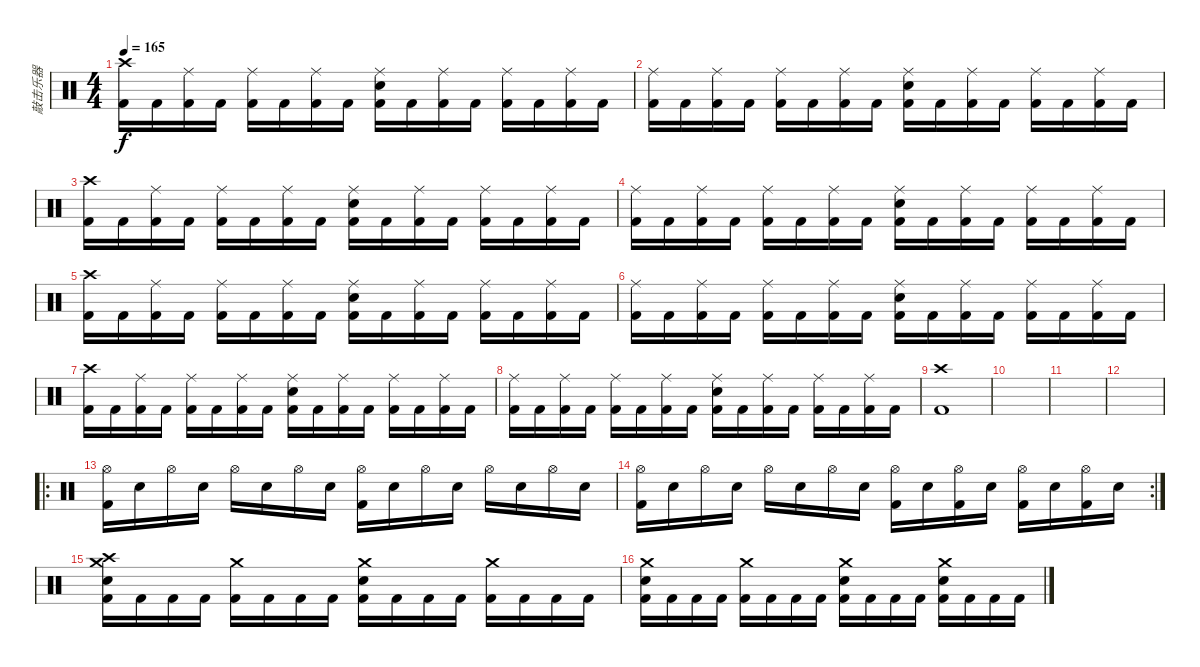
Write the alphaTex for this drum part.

\track ("敲击乐器" "敲击乐器") {instrument percussion}
\staff {score}
\articulation defaults
\ts (4 4)
\tempo 165
\clef neutral
\ks c
("Crash high (hit)" "Kick (hit) 2").16{dy f} "Kick (hit) 2".16 ("Ride (middle)" "Kick (hit) 2").16 "Kick (hit) 2".16 ("Ride (middle)" "Kick (hit) 2").16 "Kick (hit) 2".16 ("Ride (middle)" "Kick (hit) 2").16 "Kick (hit) 2".16 ("Ride (middle)" "Kick (hit) 2" "Snare (hit) 2").16 "Kick (hit) 2".16 ("Ride (middle)" "Kick (hit) 2").16 "Kick (hit) 2".16 ("Ride (middle)" "Kick (hit) 2").16 "Kick (hit) 2".16 ("Ride (middle)" "Kick (hit) 2").16 "Kick (hit) 2".16 |
("Ride (middle)" "Kick (hit) 2").16 "Kick (hit) 2".16 ("Ride (middle)" "Kick (hit) 2").16 "Kick (hit) 2".16 ("Ride (middle)" "Kick (hit) 2").16 "Kick (hit) 2".16 ("Ride (middle)" "Kick (hit) 2").16 "Kick (hit) 2".16 ("Ride (middle)" "Kick (hit) 2" "Snare (hit) 2").16 "Kick (hit) 2".16 ("Ride (middle)" "Kick (hit) 2").16 "Kick (hit) 2".16 ("Ride (middle)" "Kick (hit) 2").16 "Kick (hit) 2".16 ("Ride (middle)" "Kick (hit) 2").16 "Kick (hit) 2".16 |
("Crash high (hit)" "Kick (hit) 2").16 "Kick (hit) 2".16 ("Ride (middle)" "Kick (hit) 2").16 "Kick (hit) 2".16 ("Ride (middle)" "Kick (hit) 2").16 "Kick (hit) 2".16 ("Ride (middle)" "Kick (hit) 2").16 "Kick (hit) 2".16 ("Ride (middle)" "Kick (hit) 2" "Snare (hit) 2").16 "Kick (hit) 2".16 ("Ride (middle)" "Kick (hit) 2").16 "Kick (hit) 2".16 ("Ride (middle)" "Kick (hit) 2").16 "Kick (hit) 2".16 ("Ride (middle)" "Kick (hit) 2").16 "Kick (hit) 2".16 |
("Ride (middle)" "Kick (hit) 2").16 "Kick (hit) 2".16 ("Ride (middle)" "Kick (hit) 2").16 "Kick (hit) 2".16 ("Ride (middle)" "Kick (hit) 2").16 "Kick (hit) 2".16 ("Ride (middle)" "Kick (hit) 2").16 "Kick (hit) 2".16 ("Ride (middle)" "Kick (hit) 2" "Snare (hit) 2").16 "Kick (hit) 2".16 ("Ride (middle)" "Kick (hit) 2").16 "Kick (hit) 2".16 ("Ride (middle)" "Kick (hit) 2").16 "Kick (hit) 2".16 ("Ride (middle)" "Kick (hit) 2").16 "Kick (hit) 2".16 |
("Crash high (hit)" "Kick (hit) 2").16 "Kick (hit) 2".16 ("Ride (middle)" "Kick (hit) 2").16 "Kick (hit) 2".16 ("Ride (middle)" "Kick (hit) 2").16 "Kick (hit) 2".16 ("Ride (middle)" "Kick (hit) 2").16 "Kick (hit) 2".16 ("Ride (middle)" "Kick (hit) 2" "Snare (hit) 2").16 "Kick (hit) 2".16 ("Ride (middle)" "Kick (hit) 2").16 "Kick (hit) 2".16 ("Ride (middle)" "Kick (hit) 2").16 "Kick (hit) 2".16 ("Ride (middle)" "Kick (hit) 2").16 "Kick (hit) 2".16 |
("Ride (middle)" "Kick (hit) 2").16 "Kick (hit) 2".16 ("Ride (middle)" "Kick (hit) 2").16 "Kick (hit) 2".16 ("Ride (middle)" "Kick (hit) 2").16 "Kick (hit) 2".16 ("Ride (middle)" "Kick (hit) 2").16 "Kick (hit) 2".16 ("Ride (middle)" "Kick (hit) 2" "Snare (hit) 2").16 "Kick (hit) 2".16 ("Ride (middle)" "Kick (hit) 2").16 "Kick (hit) 2".16 ("Ride (middle)" "Kick (hit) 2").16 "Kick (hit) 2".16 ("Ride (middle)" "Kick (hit) 2").16 "Kick (hit) 2".16 |
("Crash high (hit)" "Kick (hit) 2").16 "Kick (hit) 2".16 ("Ride (middle)" "Kick (hit) 2").16 "Kick (hit) 2".16 ("Ride (middle)" "Kick (hit) 2").16 "Kick (hit) 2".16 ("Ride (middle)" "Kick (hit) 2").16 "Kick (hit) 2".16 ("Ride (middle)" "Kick (hit) 2" "Snare (hit) 2").16 "Kick (hit) 2".16 ("Ride (middle)" "Kick (hit) 2").16 "Kick (hit) 2".16 ("Ride (middle)" "Kick (hit) 2").16 "Kick (hit) 2".16 ("Ride (middle)" "Kick (hit) 2").16 "Kick (hit) 2".16 |
("Ride (middle)" "Kick (hit) 2").16 "Kick (hit) 2".16 ("Ride (middle)" "Kick (hit) 2").16 "Kick (hit) 2".16 ("Ride (middle)" "Kick (hit) 2").16 "Kick (hit) 2".16 ("Ride (middle)" "Kick (hit) 2").16 "Kick (hit) 2".16 ("Ride (middle)" "Kick (hit) 2" "Snare (hit) 2").16 "Kick (hit) 2".16 ("Ride (middle)" "Kick (hit) 2").16 "Kick (hit) 2".16 ("Ride (middle)" "Kick (hit) 2").16 "Kick (hit) 2".16 ("Ride (middle)" "Kick (hit) 2").16 "Kick (hit) 2".16 |
("Kick (hit) 2" "Crash high (hit)").1 |
|
|
|
\ro
("Kick (hit) 2" "Hi-Hat (open)").16 "Snare (hit) 2".16 "Hi-Hat (open)".16 "Snare (hit) 2".16 "Hi-Hat (open)".16 "Snare (hit) 2".16 "Hi-Hat (open)".16 "Snare (hit) 2".16 ("Hi-Hat (open)" "Kick (hit) 2").16 "Snare (hit) 2".16 "Hi-Hat (open)".16 "Snare (hit) 2".16 "Hi-Hat (open)".16 "Snare (hit) 2".16 "Hi-Hat (open)".16 "Snare (hit) 2".16 |
\rc 2
("Kick (hit) 2" "Hi-Hat (open)").16 "Snare (hit) 2".16 "Hi-Hat (open)".16 "Snare (hit) 2".16 "Hi-Hat (open)".16 "Snare (hit) 2".16 "Hi-Hat (open)".16 "Snare (hit) 2".16 ("Hi-Hat (open)" "Kick (hit) 2").16 "Snare (hit) 2".16 ("Hi-Hat (open)" "Kick (hit) 2").16 "Snare (hit) 2".16 ("Hi-Hat (open)" "Kick (hit) 2").16 "Snare (hit) 2".16 ("Hi-Hat (open)" "Kick (hit) 2").16 "Snare (hit) 2".16 |
("Snare (hit) 2" "Crash medium (hit)" "Kick (hit) 2" "Crash high (hit)").16 "Kick (hit) 2".16 "Kick (hit) 2".16 "Kick (hit) 2".16 ("Crash medium (hit)" "Kick (hit) 2").16 "Kick (hit) 2".16 "Kick (hit) 2".16 "Kick (hit) 2".16 ("Snare (hit) 2" "Crash medium (hit)" "Kick (hit) 2").16 "Kick (hit) 2".16 "Kick (hit) 2".16 "Kick (hit) 2".16 ("Crash medium (hit)" "Kick (hit) 2").16 "Kick (hit) 2".16 "Kick (hit) 2".16 "Kick (hit) 2".16 |
("Snare (hit) 2" "Crash medium (hit)" "Kick (hit) 2").16 "Kick (hit) 2".16 "Kick (hit) 2".16 "Kick (hit) 2".16 ("Crash medium (hit)" "Kick (hit) 2").16 "Kick (hit) 2".16 "Kick (hit) 2".16 "Kick (hit) 2".16 ("Snare (hit) 2" "Crash medium (hit)" "Kick (hit) 2").16 "Kick (hit) 2".16 "Kick (hit) 2".16 "Kick (hit) 2".16 ("Snare (hit) 2" "Crash medium (hit)" "Kick (hit) 2").16 "Kick (hit) 2".16 "Kick (hit) 2".16 "Kick (hit) 2".16
